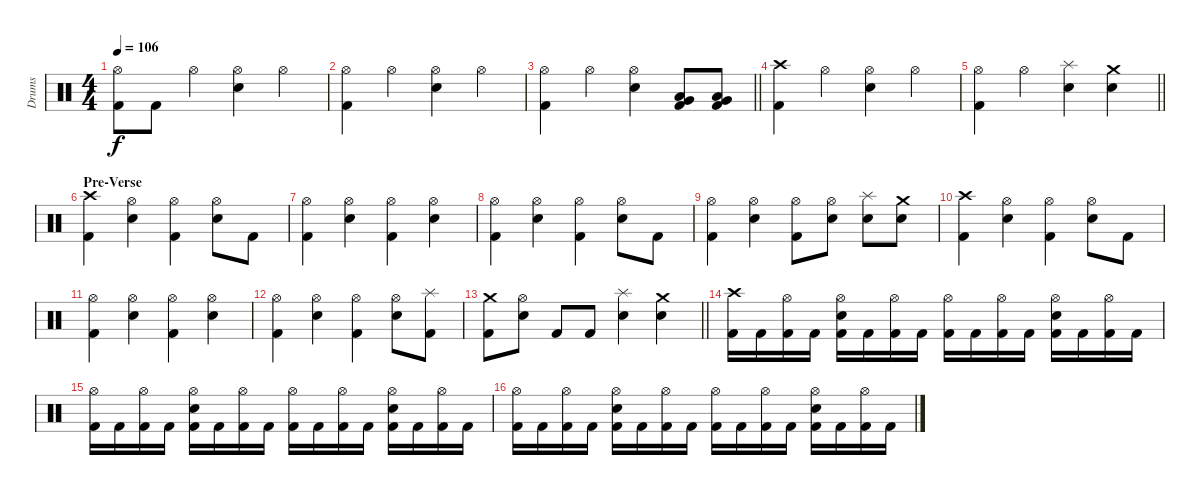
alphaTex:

\track ("Drums" "Drums") {instrument percussion}
\staff {score}
\articulation defaults
\ts (4 4)
\tempo 106
\clef neutral
\ks c
("Hi-Hat (open)" "Kick (hit) 2").8{dy f} "Kick (hit) 2".8 "Hi-Hat (open)".4 ("Hi-Hat (open)" "Electric Snare (hit)").4 "Hi-Hat (open)".4 |
("Hi-Hat (open)" "Kick (hit) 2").4 "Hi-Hat (open)".4 ("Hi-Hat (open)" "Electric Snare (hit)").4 "Hi-Hat (open)".4 |
\barLineRight lightlight
("Hi-Hat (open)" "Kick (hit) 2").4 "Hi-Hat (open)".4 ("Hi-Hat (open)" "Electric Snare (hit)").4 ("Low Tom (hit)" "Very Low Tom (hit)" "Kick (hit) 2").8 ("Low Tom (hit)" "Very Low Tom (hit)" "Kick (hit) 2").8 |
\section ("" "")
("Crash high (hit)" "Kick (hit) 2").4 "Hi-Hat (open)".4 ("Hi-Hat (open)" "Electric Snare (hit)").4 "Hi-Hat (open)".4 |
\barLineRight lightlight
("Hi-Hat (open)" "Kick (hit) 2").4 "Hi-Hat (open)".4 ("Splash (hit)" "Electric Snare (hit)").4 ("Crash medium (hit)" "Electric Snare (hit)").4 |
\section ("" "Pre-Verse")
("Crash high (hit)" "Kick (hit) 2").4 ("Hi-Hat (open)" "Electric Snare (hit)").4 ("Hi-Hat (open)" "Kick (hit) 2").4 ("Hi-Hat (open)" "Electric Snare (hit)").8 "Kick (hit) 2".8 |
("Hi-Hat (open)" "Kick (hit) 2").4 ("Hi-Hat (open)" "Electric Snare (hit)").4 ("Hi-Hat (open)" "Kick (hit) 2").4 ("Hi-Hat (open)" "Electric Snare (hit)").4 |
("Hi-Hat (open)" "Kick (hit) 2").4 ("Hi-Hat (open)" "Electric Snare (hit)").4 ("Hi-Hat (open)" "Kick (hit) 2").4 ("Hi-Hat (open)" "Electric Snare (hit)").8 "Kick (hit) 2".8 |
("Hi-Hat (open)" "Kick (hit) 2").4 ("Hi-Hat (open)" "Electric Snare (hit)").4 ("Hi-Hat (open)" "Kick (hit) 2").8 ("Hi-Hat (open)" "Electric Snare (hit)").8 ("Splash (hit)" "Electric Snare (hit)").8 ("Crash medium (hit)" "Electric Snare (hit)").8 |
("Crash high (hit)" "Kick (hit) 2").4 ("Hi-Hat (open)" "Electric Snare (hit)").4 ("Hi-Hat (open)" "Kick (hit) 2").4 ("Hi-Hat (open)" "Electric Snare (hit)").8 "Kick (hit) 2".8 |
("Hi-Hat (open)" "Kick (hit) 2").4 ("Hi-Hat (open)" "Electric Snare (hit)").4 ("Hi-Hat (open)" "Kick (hit) 2").4 ("Hi-Hat (open)" "Electric Snare (hit)").4 |
("Hi-Hat (open)" "Kick (hit) 2").4 ("Hi-Hat (open)" "Electric Snare (hit)").4 ("Hi-Hat (open)" "Kick (hit) 2").4 ("Hi-Hat (open)" "Electric Snare (hit)").8 ("Splash (hit)" "Kick (hit) 2").8 |
\barLineRight lightlight
("Crash medium (hit)" "Kick (hit) 2").8 ("Hi-Hat (open)" "Electric Snare (hit)").8 "Kick (hit) 2".8 "Kick (hit) 2".8 ("Splash (hit)" "Electric Snare (hit)").4 ("Crash medium (hit)" "Electric Snare (hit)").4 |
\section ("" "")
("Crash high (hit)" "Kick (hit) 2").16 "Kick (hit) 2".16 ("Hi-Hat (open)" "Kick (hit) 2").16 "Kick (hit) 2".16 ("Hi-Hat (open)" "Electric Snare (hit)" "Kick (hit) 2").16 "Kick (hit) 2".16 ("Hi-Hat (open)" "Kick (hit) 2").16 "Kick (hit) 2".16 ("Hi-Hat (open)" "Kick (hit) 2").16 "Kick (hit) 2".16 ("Hi-Hat (open)" "Kick (hit) 2").16 "Kick (hit) 2".16 ("Hi-Hat (open)" "Electric Snare (hit)" "Kick (hit) 2").16 "Kick (hit) 2".16 ("Hi-Hat (open)" "Kick (hit) 2").16 "Kick (hit) 2".16 |
("Hi-Hat (open)" "Kick (hit) 2").16 "Kick (hit) 2".16 ("Hi-Hat (open)" "Kick (hit) 2").16 "Kick (hit) 2".16 ("Hi-Hat (open)" "Electric Snare (hit)" "Kick (hit) 2").16 "Kick (hit) 2".16 ("Hi-Hat (open)" "Kick (hit) 2").16 "Kick (hit) 2".16 ("Hi-Hat (open)" "Kick (hit) 2").16 "Kick (hit) 2".16 ("Hi-Hat (open)" "Kick (hit) 2").16 "Kick (hit) 2".16 ("Hi-Hat (open)" "Electric Snare (hit)" "Kick (hit) 2").16 "Kick (hit) 2".16 ("Hi-Hat (open)" "Kick (hit) 2").16 "Kick (hit) 2".16 |
("Hi-Hat (open)" "Kick (hit) 2").16 "Kick (hit) 2".16 ("Hi-Hat (open)" "Kick (hit) 2").16 "Kick (hit) 2".16 ("Hi-Hat (open)" "Electric Snare (hit)" "Kick (hit) 2").16 "Kick (hit) 2".16 ("Hi-Hat (open)" "Kick (hit) 2").16 "Kick (hit) 2".16 ("Hi-Hat (open)" "Kick (hit) 2").16 "Kick (hit) 2".16 ("Hi-Hat (open)" "Kick (hit) 2").16 "Kick (hit) 2".16 ("Hi-Hat (open)" "Electric Snare (hit)" "Kick (hit) 2").16 "Kick (hit) 2".16 ("Hi-Hat (open)" "Kick (hit) 2").16 "Kick (hit) 2".16
